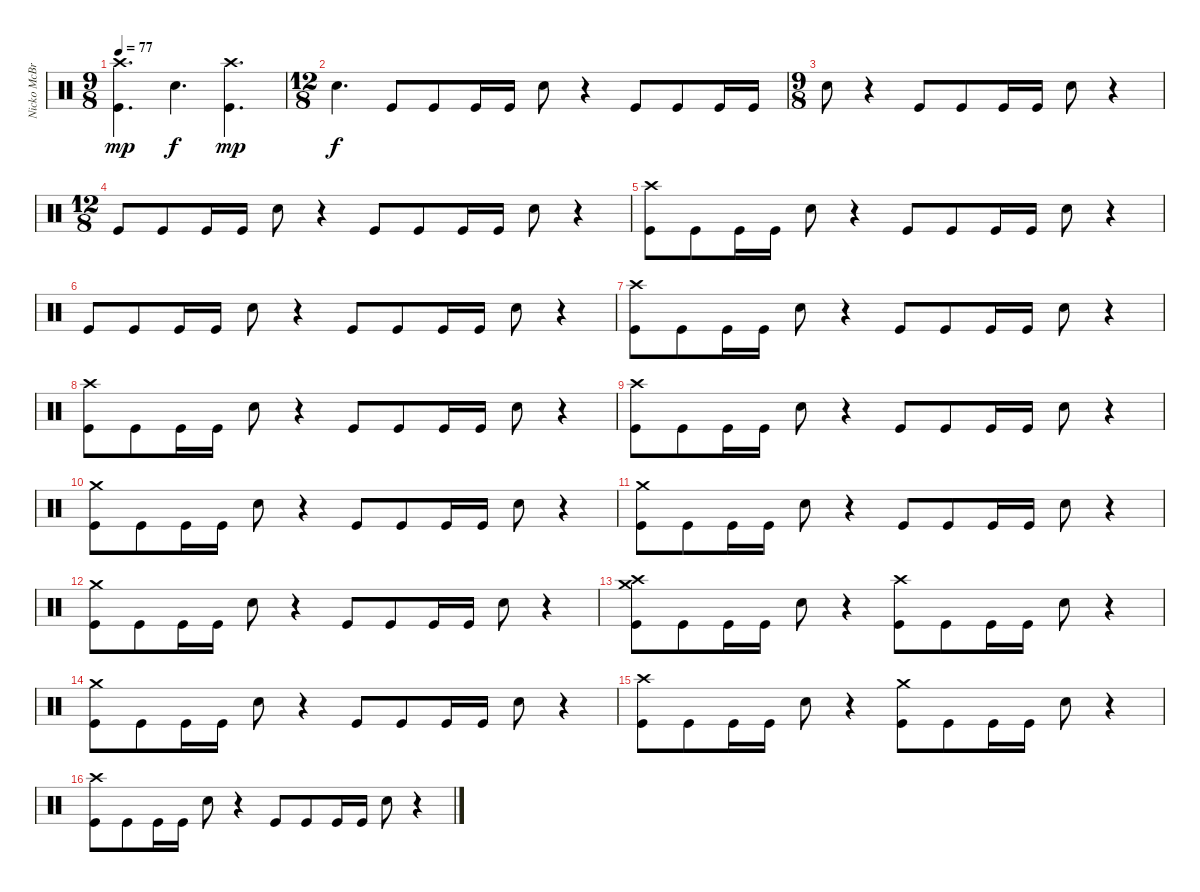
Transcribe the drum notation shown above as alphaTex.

\track ("Nicko McBrain" "Nicko McBr") {instrument percussion}
\staff {score}
\articulation defaults
\ts (9 8)
\tempo 77
\clef neutral
\ks c
("Crash high (hit)" "Kick (hit)").4{d dy mp} "Snare (hit) 2".4{d dy f} ("Crash high (hit)" "Kick (hit)").4{d dy mp} |
\ts (12 8)
"Snare (hit) 2".4{d dy f} "Kick (hit)".8 "Kick (hit)".8 "Kick (hit)".16 "Kick (hit)".16 "Snare (hit) 2".8 r.4 "Kick (hit)".8 "Kick (hit)".8 "Kick (hit)".16 "Kick (hit)".16 |
\ts (9 8)
"Snare (hit) 2".8 r.4 "Kick (hit)".8 "Kick (hit)".8 "Kick (hit)".16 "Kick (hit)".16 "Snare (hit) 2".8 r.4 |
\ts (12 8)
"Kick (hit)".8 "Kick (hit)".8 "Kick (hit)".16 "Kick (hit)".16 "Snare (hit) 2".8 r.4 "Kick (hit)".8 "Kick (hit)".8 "Kick (hit)".16 "Kick (hit)".16 "Snare (hit) 2".8 r.4 |
("Crash high (hit)" "Kick (hit)").8 "Kick (hit)".8 "Kick (hit)".16 "Kick (hit)".16 "Snare (hit) 2".8 r.4 "Kick (hit)".8 "Kick (hit)".8 "Kick (hit)".16 "Kick (hit)".16 "Snare (hit) 2".8 r.4 |
"Kick (hit)".8 "Kick (hit)".8 "Kick (hit)".16 "Kick (hit)".16 "Snare (hit) 2".8 r.4 "Kick (hit)".8 "Kick (hit)".8 "Kick (hit)".16 "Kick (hit)".16 "Snare (hit) 2".8 r.4 |
("Crash high (hit)" "Kick (hit)").8 "Kick (hit)".8 "Kick (hit)".16 "Kick (hit)".16 "Snare (hit) 2".8 r.4 "Kick (hit)".8 "Kick (hit)".8 "Kick (hit)".16 "Kick (hit)".16 "Snare (hit) 2".8 r.4 |
("Crash high (hit)" "Kick (hit)").8 "Kick (hit)".8 "Kick (hit)".16 "Kick (hit)".16 "Snare (hit) 2".8 r.4 "Kick (hit)".8 "Kick (hit)".8 "Kick (hit)".16 "Kick (hit)".16 "Snare (hit) 2".8 r.4 |
("Crash high (hit)" "Kick (hit)").8 "Kick (hit)".8 "Kick (hit)".16 "Kick (hit)".16 "Snare (hit) 2".8 r.4 "Kick (hit)".8 "Kick (hit)".8 "Kick (hit)".16 "Kick (hit)".16 "Snare (hit) 2".8 r.4 |
("Crash medium (hit)" "Kick (hit)").8 "Kick (hit)".8 "Kick (hit)".16 "Kick (hit)".16 "Snare (hit) 2".8 r.4 "Kick (hit)".8 "Kick (hit)".8 "Kick (hit)".16 "Kick (hit)".16 "Snare (hit) 2".8 r.4 |
("Crash medium (hit)" "Kick (hit)").8 "Kick (hit)".8 "Kick (hit)".16 "Kick (hit)".16 "Snare (hit) 2".8 r.4 "Kick (hit)".8 "Kick (hit)".8 "Kick (hit)".16 "Kick (hit)".16 "Snare (hit) 2".8 r.4 |
("Crash medium (hit)" "Kick (hit)").8 "Kick (hit)".8 "Kick (hit)".16 "Kick (hit)".16 "Snare (hit) 2".8 r.4 "Kick (hit)".8 "Kick (hit)".8 "Kick (hit)".16 "Kick (hit)".16 "Snare (hit) 2".8 r.4 |
("Crash high (hit)" "Crash medium (hit)" "Kick (hit)").8 "Kick (hit)".8 "Kick (hit)".16 "Kick (hit)".16 "Snare (hit) 2".8 r.4 ("Crash high (hit)" "Kick (hit)").8 "Kick (hit)".8 "Kick (hit)".16 "Kick (hit)".16 "Snare (hit) 2".8 r.4 |
("Crash medium (hit)" "Kick (hit)").8 "Kick (hit)".8 "Kick (hit)".16 "Kick (hit)".16 "Snare (hit) 2".8 r.4 "Kick (hit)".8 "Kick (hit)".8 "Kick (hit)".16 "Kick (hit)".16 "Snare (hit) 2".8 r.4 |
("Crash high (hit)" "Kick (hit)").8 "Kick (hit)".8 "Kick (hit)".16 "Kick (hit)".16 "Snare (hit) 2".8 r.4 ("Crash medium (hit)" "Kick (hit)").8 "Kick (hit)".8 "Kick (hit)".16 "Kick (hit)".16 "Snare (hit) 2".8 r.4 |
("Crash high (hit)" "Kick (hit)").8 "Kick (hit)".8 "Kick (hit)".16 "Kick (hit)".16 "Snare (hit) 2".8 r.4 "Kick (hit)".8 "Kick (hit)".8 "Kick (hit)".16 "Kick (hit)".16 "Snare (hit) 2".8 r.4
